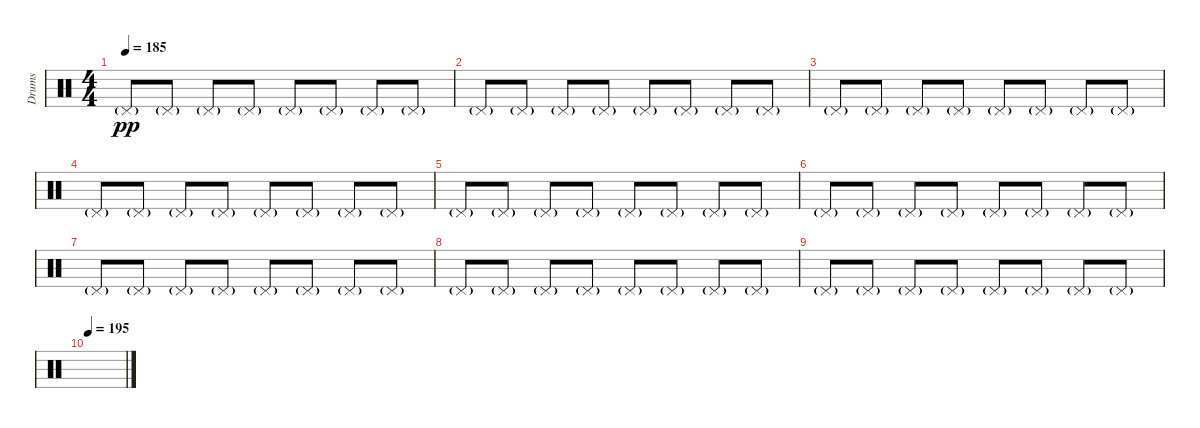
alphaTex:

\track ("Drums" "Drums") {instrument percussion}
\staff {score}
\articulation defaults
\ts (4 4)
\tempo 185
\clef neutral
\ks c "Pedal Hi-Hat (hit)"{g}.8{dy pp} "Pedal Hi-Hat (hit)"{g}.8 "Pedal Hi-Hat (hit)"{g}.8 "Pedal Hi-Hat (hit)"{g}.8 "Pedal Hi-Hat (hit)"{g}.8 "Pedal Hi-Hat (hit)"{g}.8 "Pedal Hi-Hat (hit)"{g}.8 "Pedal Hi-Hat (hit)"{g}.8
|
"Pedal Hi-Hat (hit)"{g}.8 "Pedal Hi-Hat (hit)"{g}.8 "Pedal Hi-Hat (hit)"{g}.8 "Pedal Hi-Hat (hit)"{g}.8 "Pedal Hi-Hat (hit)"{g}.8 "Pedal Hi-Hat (hit)"{g}.8 "Pedal Hi-Hat (hit)"{g}.8 "Pedal Hi-Hat (hit)"{g}.8 |
"Pedal Hi-Hat (hit)"{g}.8 "Pedal Hi-Hat (hit)"{g}.8 "Pedal Hi-Hat (hit)"{g}.8 "Pedal Hi-Hat (hit)"{g}.8 "Pedal Hi-Hat (hit)"{g}.8 "Pedal Hi-Hat (hit)"{g}.8 "Pedal Hi-Hat (hit)"{g}.8 "Pedal Hi-Hat (hit)"{g}.8 |
"Pedal Hi-Hat (hit)"{g}.8 "Pedal Hi-Hat (hit)"{g}.8 "Pedal Hi-Hat (hit)"{g}.8 "Pedal Hi-Hat (hit)"{g}.8 "Pedal Hi-Hat (hit)"{g}.8 "Pedal Hi-Hat (hit)"{g}.8 "Pedal Hi-Hat (hit)"{g}.8 "Pedal Hi-Hat (hit)"{g}.8 |
"Pedal Hi-Hat (hit)"{g}.8 "Pedal Hi-Hat (hit)"{g}.8 "Pedal Hi-Hat (hit)"{g}.8 "Pedal Hi-Hat (hit)"{g}.8 "Pedal Hi-Hat (hit)"{g}.8 "Pedal Hi-Hat (hit)"{g}.8 "Pedal Hi-Hat (hit)"{g}.8 "Pedal Hi-Hat (hit)"{g}.8 |
"Pedal Hi-Hat (hit)"{g}.8 "Pedal Hi-Hat (hit)"{g}.8 "Pedal Hi-Hat (hit)"{g}.8 "Pedal Hi-Hat (hit)"{g}.8 "Pedal Hi-Hat (hit)"{g}.8 "Pedal Hi-Hat (hit)"{g}.8 "Pedal Hi-Hat (hit)"{g}.8 "Pedal Hi-Hat (hit)"{g}.8 |
"Pedal Hi-Hat (hit)"{g}.8 "Pedal Hi-Hat (hit)"{g}.8 "Pedal Hi-Hat (hit)"{g}.8 "Pedal Hi-Hat (hit)"{g}.8 "Pedal Hi-Hat (hit)"{g}.8 "Pedal Hi-Hat (hit)"{g}.8 "Pedal Hi-Hat (hit)"{g}.8 "Pedal Hi-Hat (hit)"{g}.8 |
"Pedal Hi-Hat (hit)"{g}.8 "Pedal Hi-Hat (hit)"{g}.8 "Pedal Hi-Hat (hit)"{g}.8 "Pedal Hi-Hat (hit)"{g}.8 "Pedal Hi-Hat (hit)"{g}.8 "Pedal Hi-Hat (hit)"{g}.8 "Pedal Hi-Hat (hit)"{g}.8 "Pedal Hi-Hat (hit)"{g}.8 |
"Pedal Hi-Hat (hit)"{g}.8 "Pedal Hi-Hat (hit)"{g}.8 "Pedal Hi-Hat (hit)"{g}.8 "Pedal Hi-Hat (hit)"{g}.8 "Pedal Hi-Hat (hit)"{g}.8 "Pedal Hi-Hat (hit)"{g}.8 "Pedal Hi-Hat (hit)"{g}.8 "Pedal Hi-Hat (hit)"{g}.8 |
\tempo 195
